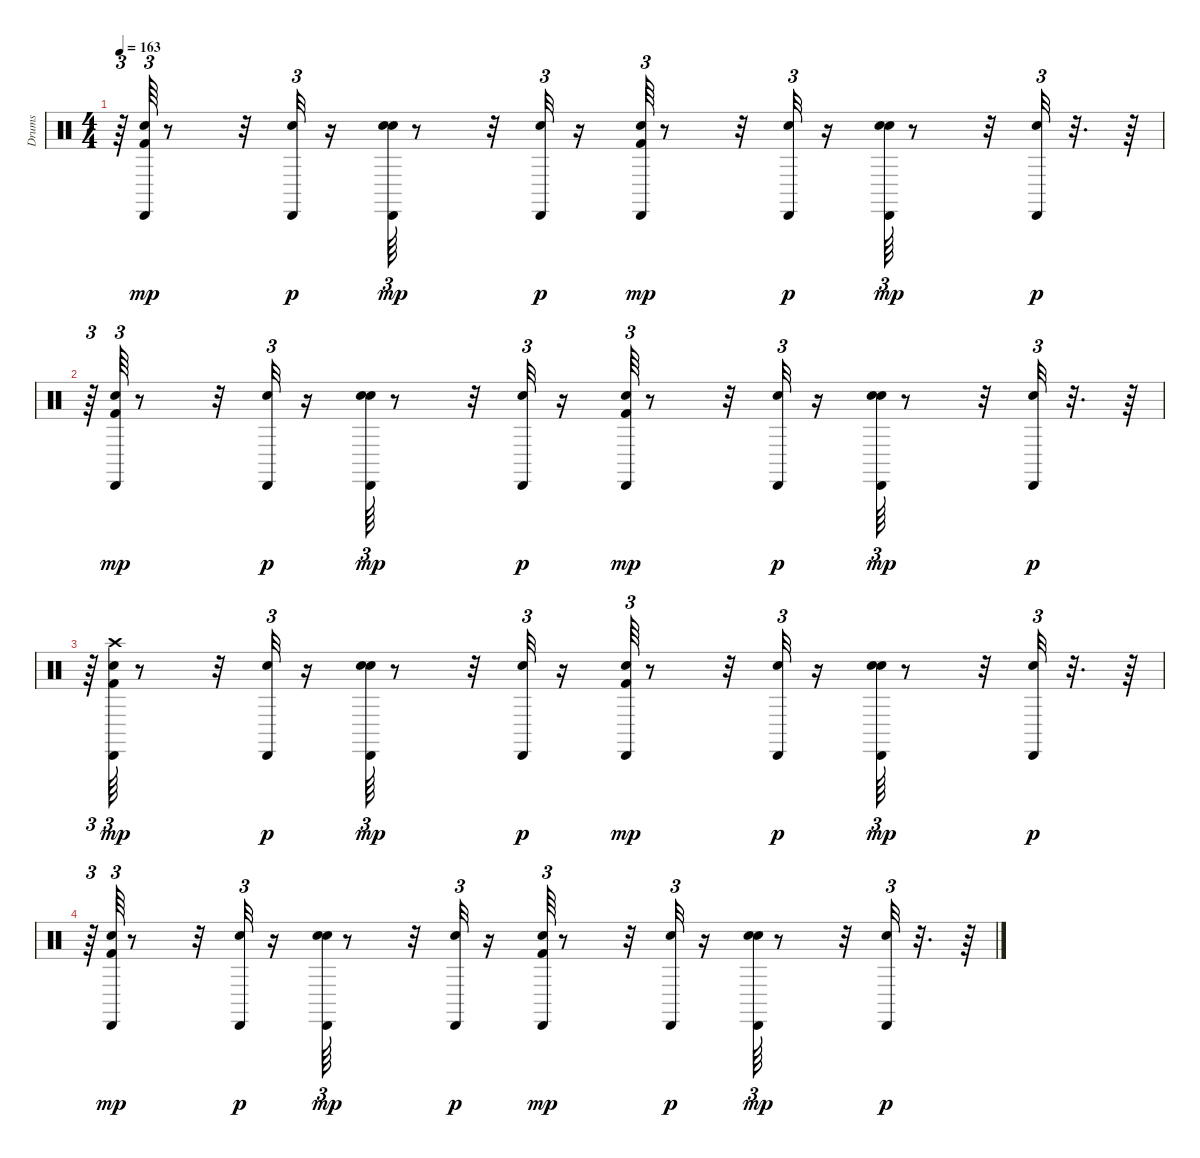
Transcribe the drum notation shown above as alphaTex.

\track ("Drums               " "Drums     ") {instrument percussion}
\staff {score}
\articulation defaults
\ts (4 4)
\tempo 163
\clef neutral
\ks c
r.64{tu (3 2) dy p} ("Kick (hit) 2" "Snare (hit) 2" "Cabasa (hit)").64{tu (3 2) dy mp} r.8 r.32 ("Snare (hit) 2" "Cabasa (hit)").32{tu (3 2) dy p} r.16 ("Snare (hit) 2" "Hand Clap (hit)" "Cabasa (hit)").64{tu (3 2) dy mp} r.8 r.32 ("Snare (hit) 2" "Cabasa (hit)").32{tu (3 2) dy p} r.16 ("Kick (hit) 2" "Snare (hit) 2" "Cabasa (hit)").64{tu (3 2) dy mp} r.8 r.32 ("Snare (hit) 2" "Cabasa (hit)").32{tu (3 2) dy p} r.16 ("Snare (hit) 2" "Hand Clap (hit)" "Cabasa (hit)").64{tu (3 2) dy mp} r.8 r.32 ("Snare (hit) 2" "Cabasa (hit)").32{tu (3 2) dy p} r.32{d} r.64 |
r.64{tu (3 2)} ("Kick (hit) 2" "Snare (hit) 2" "Cabasa (hit)").64{tu (3 2) dy mp} r.8 r.32 ("Snare (hit) 2" "Cabasa (hit)").32{tu (3 2) dy p} r.16 ("Snare (hit) 2" "Hand Clap (hit)" "Cabasa (hit)").64{tu (3 2) dy mp} r.8 r.32 ("Snare (hit) 2" "Cabasa (hit)").32{tu (3 2) dy p} r.16 ("Kick (hit) 2" "Snare (hit) 2" "Cabasa (hit)").64{tu (3 2) dy mp} r.8 r.32 ("Snare (hit) 2" "Cabasa (hit)").32{tu (3 2) dy p} r.16 ("Snare (hit) 2" "Hand Clap (hit)" "Cabasa (hit)").64{tu (3 2) dy mp} r.8 r.32 ("Snare (hit) 2" "Cabasa (hit)").32{tu (3 2) dy p} r.32{d} r.64 |
r.64{tu (3 2)} ("Kick (hit) 2" "Snare (hit) 2" "Crash high (hit)" "Cabasa (hit)").64{tu (3 2) dy mp} r.8 r.32 ("Snare (hit) 2" "Cabasa (hit)").32{tu (3 2) dy p} r.16 ("Snare (hit) 2" "Hand Clap (hit)" "Cabasa (hit)").64{tu (3 2) dy mp} r.8 r.32 ("Snare (hit) 2" "Cabasa (hit)").32{tu (3 2) dy p} r.16 ("Kick (hit) 2" "Snare (hit) 2" "Cabasa (hit)").64{tu (3 2) dy mp} r.8 r.32 ("Snare (hit) 2" "Cabasa (hit)").32{tu (3 2) dy p} r.16 ("Snare (hit) 2" "Hand Clap (hit)" "Cabasa (hit)").64{tu (3 2) dy mp} r.8 r.32 ("Snare (hit) 2" "Cabasa (hit)").32{tu (3 2) dy p} r.32{d} r.64 |
r.64{tu (3 2)} ("Kick (hit) 2" "Snare (hit) 2" "Cabasa (hit)").64{tu (3 2) dy mp} r.8 r.32 ("Snare (hit) 2" "Cabasa (hit)").32{tu (3 2) dy p} r.16 ("Snare (hit) 2" "Hand Clap (hit)" "Cabasa (hit)").64{tu (3 2) dy mp} r.8 r.32 ("Snare (hit) 2" "Cabasa (hit)").32{tu (3 2) dy p} r.16 ("Kick (hit) 2" "Snare (hit) 2" "Cabasa (hit)").64{tu (3 2) dy mp} r.8 r.32 ("Snare (hit) 2" "Cabasa (hit)").32{tu (3 2) dy p} r.16 ("Snare (hit) 2" "Hand Clap (hit)" "Cabasa (hit)").64{tu (3 2) dy mp} r.8 r.32 ("Snare (hit) 2" "Cabasa (hit)").32{tu (3 2) dy p} r.32{d} r.64
